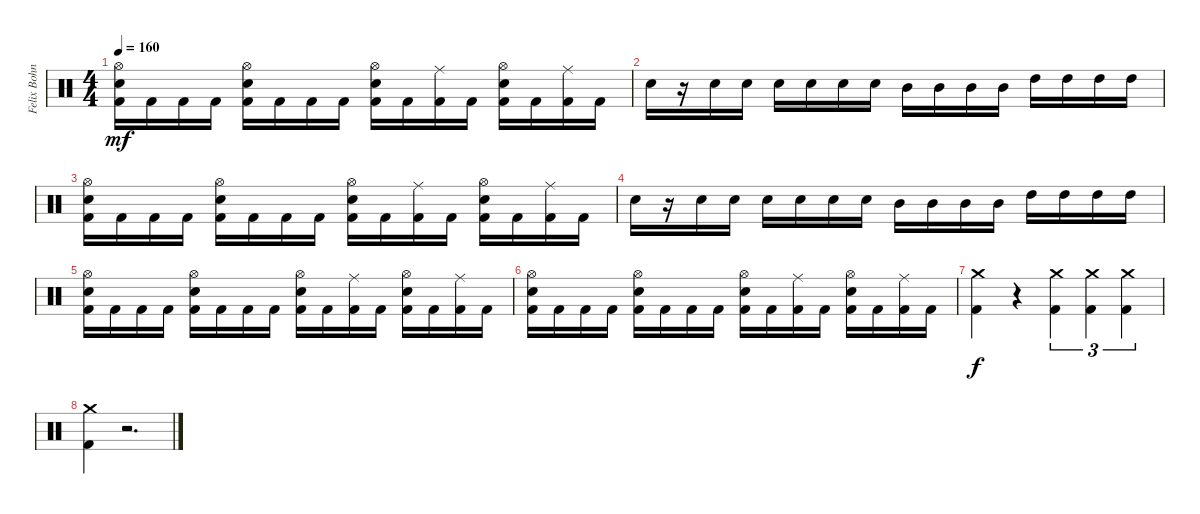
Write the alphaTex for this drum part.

\track ("Felix Bohnke" "Felix Bohn") {instrument percussion}
\staff {score}
\articulation defaults
\ts (4 4)
\tempo 160
\clef neutral
\ks c
("Hi-Hat (open)" "Electric Snare (hit)" "Kick (hit) 2").16{dy mf} "Kick (hit) 2".16 "Kick (hit) 2".16 "Kick (hit) 2".16 ("Hi-Hat (open)" "Electric Snare (hit)" "Kick (hit) 2").16 "Kick (hit) 2".16 "Kick (hit) 2".16 "Kick (hit) 2".16 ("Hi-Hat (open)" "Electric Snare (hit)" "Kick (hit) 2").16 "Kick (hit) 2".16 ("Ride (middle)" "Kick (hit) 2").16 "Kick (hit) 2".16 ("Hi-Hat (open)" "Electric Snare (hit)" "Kick (hit) 2").16 "Kick (hit) 2".16 ("Ride (middle)" "Kick (hit) 2").16 "Kick (hit) 2".16 |
"Electric Snare (hit)".16 r.16 "Electric Snare (hit)".16 "Electric Snare (hit)".16 "Electric Snare (hit)".16 "Electric Snare (hit)".16 "Electric Snare (hit)".16 "Electric Snare (hit)".16 "Mid Tom (hit)".16 "Mid Tom (hit)".16 "Mid Tom (hit)".16 "Mid Tom (hit)".16 "High Tom (hit)".16 "High Tom (hit)".16 "High Tom (hit)".16 "High Tom (hit)".16 |
("Hi-Hat (open)" "Electric Snare (hit)" "Kick (hit) 2").16 "Kick (hit) 2".16 "Kick (hit) 2".16 "Kick (hit) 2".16 ("Hi-Hat (open)" "Electric Snare (hit)" "Kick (hit) 2").16 "Kick (hit) 2".16 "Kick (hit) 2".16 "Kick (hit) 2".16 ("Hi-Hat (open)" "Electric Snare (hit)" "Kick (hit) 2").16 "Kick (hit) 2".16 ("Ride (middle)" "Kick (hit) 2").16 "Kick (hit) 2".16 ("Hi-Hat (open)" "Electric Snare (hit)" "Kick (hit) 2").16 "Kick (hit) 2".16 ("Ride (middle)" "Kick (hit) 2").16 "Kick (hit) 2".16 |
"Electric Snare (hit)".16 r.16 "Electric Snare (hit)".16 "Electric Snare (hit)".16 "Electric Snare (hit)".16 "Electric Snare (hit)".16 "Electric Snare (hit)".16 "Electric Snare (hit)".16 "Mid Tom (hit)".16 "Mid Tom (hit)".16 "Mid Tom (hit)".16 "Mid Tom (hit)".16 "High Tom (hit)".16 "High Tom (hit)".16 "High Tom (hit)".16 "High Tom (hit)".16 |
("Hi-Hat (open)" "Electric Snare (hit)" "Kick (hit) 2").16 "Kick (hit) 2".16 "Kick (hit) 2".16 "Kick (hit) 2".16 ("Hi-Hat (open)" "Electric Snare (hit)" "Kick (hit) 2").16 "Kick (hit) 2".16 "Kick (hit) 2".16 "Kick (hit) 2".16 ("Hi-Hat (open)" "Electric Snare (hit)" "Kick (hit) 2").16 "Kick (hit) 2".16 ("Ride (middle)" "Kick (hit) 2").16 "Kick (hit) 2".16 ("Hi-Hat (open)" "Electric Snare (hit)" "Kick (hit) 2").16 "Kick (hit) 2".16 ("Ride (middle)" "Kick (hit) 2").16 "Kick (hit) 2".16 |
("Hi-Hat (open)" "Electric Snare (hit)" "Kick (hit) 2").16 "Kick (hit) 2".16 "Kick (hit) 2".16 "Kick (hit) 2".16 ("Hi-Hat (open)" "Electric Snare (hit)" "Kick (hit) 2").16 "Kick (hit) 2".16 "Kick (hit) 2".16 "Kick (hit) 2".16 ("Hi-Hat (open)" "Electric Snare (hit)" "Kick (hit) 2").16 "Kick (hit) 2".16 ("Ride (middle)" "Kick (hit) 2").16 "Kick (hit) 2".16 ("Hi-Hat (open)" "Electric Snare (hit)" "Kick (hit) 2").16 "Kick (hit) 2".16 ("Ride (middle)" "Kick (hit) 2").16 "Kick (hit) 2".16 |
("Crash medium (hit)" "Kick (hit) 2").4{dy f} r.4 ("Crash medium (hit)" "Kick (hit) 2").4{tu (3 2)} ("Crash medium (hit)" "Kick (hit) 2").4{tu (3 2)} ("Crash medium (hit)" "Kick (hit) 2").4{tu (3 2)} |
("Crash medium (hit)" "Kick (hit) 2").4 r.2{d}
